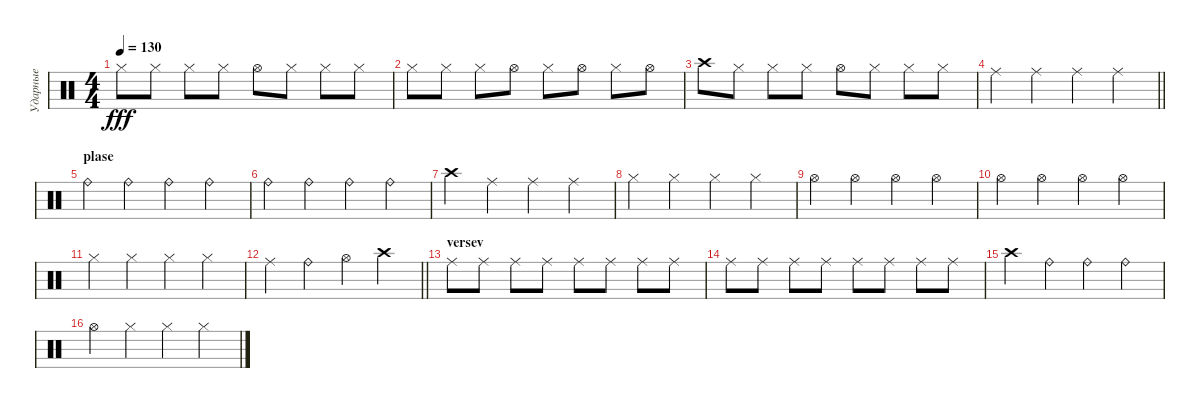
\track ("Ударные" "Ударные") {instrument percussion}
\staff {score}
\articulation defaults
\ts (4 4)
\tempo 130
\clef neutral
\ks c "Hi-Hat (closed)".8{dy fff} "Hi-Hat (closed)".8 "Hi-Hat (closed)".8 "Hi-Hat (closed)".8 "Hi-Hat (open)".8 "Hi-Hat (closed)".8 "Hi-Hat (closed)".8 "Hi-Hat (closed)".8
|
"Hi-Hat (closed)".8 "Hi-Hat (closed)".8 "Hi-Hat (closed)".8 "Hi-Hat (open)".8 "Hi-Hat (closed)".8 "Hi-Hat (open)".8 "Hi-Hat (closed)".8 "Hi-Hat (open)".8 |
"Crash high (hit)".8 "Hi-Hat (closed)".8 "Hi-Hat (closed)".8 "Hi-Hat (closed)".8 "Hi-Hat (open)".8 "Hi-Hat (closed)".8 "Hi-Hat (closed)".8 "Hi-Hat (closed)".8 |
\barLineRight lightlight "Ride (middle)".4 "Ride (middle)".4 "Ride (middle)".4 "Ride (middle)".4
|
\section ("" "plase")
"Ride (bell)".4 "Ride (bell)".4 "Ride (bell)".4 "Ride (bell)".4 |
"Ride (bell)".4 "Ride (bell)".4 "Ride (bell)".4 "Ride (bell)".4 |
"Crash high (hit)".4 "Ride (middle)".4 "Ride (middle)".4 "Ride (middle)".4 |
"Hi-Hat (closed)".4 "Hi-Hat (closed)".4 "Hi-Hat (closed)".4 "Hi-Hat (closed)".4 |
"Hi-Hat (open)".4 "Hi-Hat (open)".4 "Hi-Hat (open)".4 "Hi-Hat (open)".4 |
"Hi-Hat (open)".4 "Hi-Hat (open)".4 "Hi-Hat (open)".4 "Hi-Hat (open)".4 |
"Hi-Hat (closed)".4 "Hi-Hat (closed)".4 "Hi-Hat (closed)".4 "Hi-Hat (closed)".4 |
\barLineRight lightlight "Ride (middle)".4 "Ride (bell)".4 "Hi-Hat (open)".4 "Crash high (hit)".4
|
\section ("" "versev")
"Ride (middle)".8 "Ride (middle)".8 "Ride (middle)".8 "Ride (middle)".8 "Ride (middle)".8 "Ride (middle)".8 "Ride (middle)".8 "Ride (middle)".8 |
"Ride (middle)".8 "Ride (middle)".8 "Ride (middle)".8 "Ride (middle)".8 "Ride (middle)".8 "Ride (middle)".8 "Ride (middle)".8 "Ride (middle)".8 |
"Crash high (hit)".4 "Ride (bell)".4 "Ride (bell)".4 "Ride (bell)".4 |
"Hi-Hat (open)".4 "Hi-Hat (closed)".4 "Hi-Hat (closed)".4 "Hi-Hat (closed)".4
